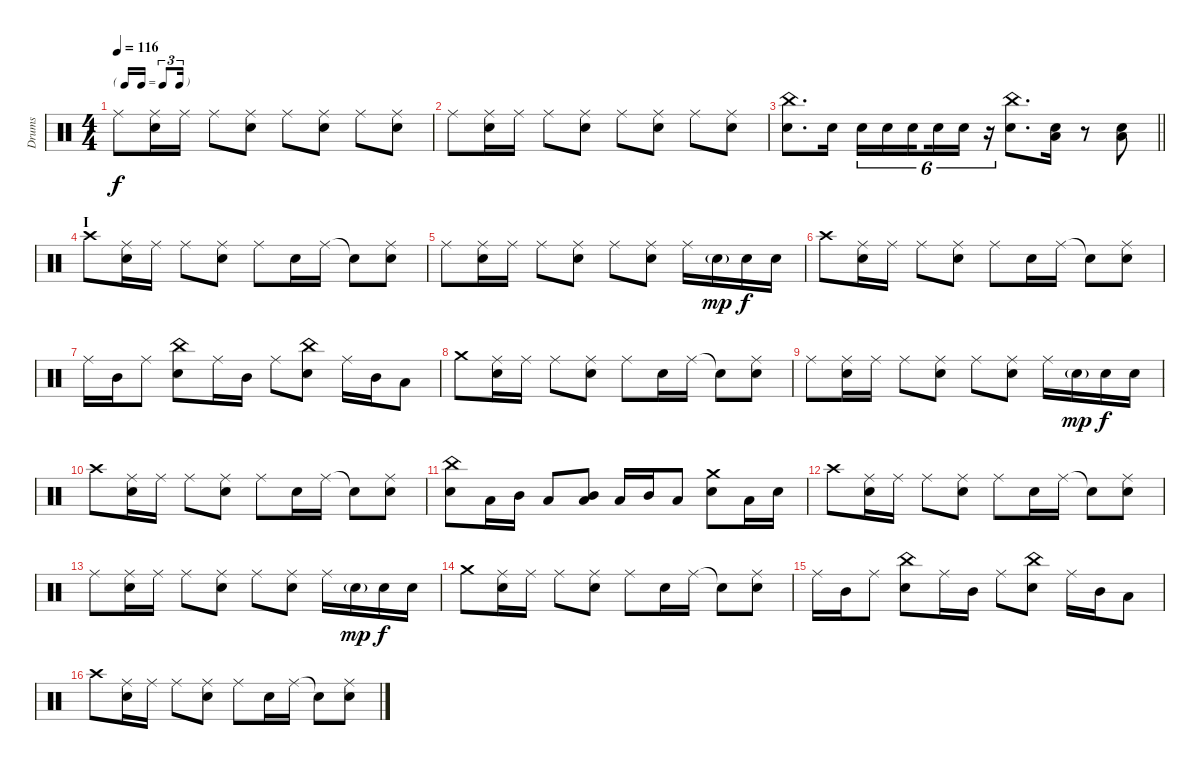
\track ("Drums" "Drums") {instrument percussion}
\staff {score}
\articulation defaults
\ts (4 4)
\tf triplet16th
\tempo 116
\clef neutral
\ks c "Ride (middle)".8{dy f}
("Ride (middle)" "Snare (hit) 2").16 "Ride (middle)".16 "Ride (middle)".8 ("Ride (middle)" "Snare (hit) 2").8 "Ride (middle)".8 ("Ride (middle)" "Snare (hit) 2").8 "Ride (middle)".8 ("Ride (middle)" "Snare (hit) 2").8 |
"Ride (middle)".8 ("Ride (middle)" "Snare (hit) 2").16 "Ride (middle)".16 "Ride (middle)".8 ("Ride (middle)" "Snare (hit) 2").8 "Ride (middle)".8 ("Ride (middle)" "Snare (hit) 2").8 "Ride (middle)".8 ("Ride (middle)" "Snare (hit) 2").8 |
\barLineRight lightlight
("China (hit)" "Snare (hit) 2").8{d} "Snare (hit) 2".16 "Snare (hit) 2".16{tu (6 4)} "Snare (hit) 2".16{tu (6 4)} "Snare (hit) 2".16{tu (6 4) beam splitsecondary} "Snare (hit) 2".16{tu (6 4)} "Snare (hit) 2".16{tu (6 4)} r.16{tu (6 4)} ("China (hit)" "Snare (hit) 2").8{d} ("Low Tom (hit)" "Snare (hit) 2").16 r.8 ("Low Tom (hit)" "Snare (hit) 2").8 |
\section ("" "I")
"Crash high (hit)".8 ("Ride (middle)" "Snare (hit) 2").16 "Ride (middle)".16 "Ride (middle)".8 ("Ride (middle)" "Snare (hit) 2").8 "Ride (middle)".8 "Snare (hit) 2".16 "Ride (middle)".16 "Snare (hit)"{t}.8 ("Ride (middle)" "Snare (hit) 2").8 |
"Ride (middle)".8 ("Ride (middle)" "Snare (hit) 2").16 "Ride (middle)".16 "Ride (middle)".8 ("Ride (middle)" "Snare (hit) 2").8 "Ride (middle)".8 ("Ride (middle)" "Snare (hit) 2").8 "Ride (middle)".16 "Snare (hit) 2"{g}.16{dy mp} "Snare (hit) 2".16{dy f} "Snare (hit) 2".16 |
"Crash high (hit)".8 ("Ride (middle)" "Snare (hit) 2").16 "Ride (middle)".16 "Ride (middle)".8 ("Ride (middle)" "Snare (hit) 2").8 "Ride (middle)".8 "Snare (hit) 2".16 "Ride (middle)".16 "Snare (hit)"{t}.8 ("Ride (middle)" "Snare (hit) 2").8 |
"Ride (middle)".16 "Mid Tom (hit)".16 "Ride (middle)".8 ("China (hit)" "Snare (hit) 2").8 "Ride (middle)".16 "Mid Tom (hit)".16 "Ride (middle)".8 ("China (hit)" "Snare (hit) 2").8 "Ride (middle)".16 "Mid Tom (hit)".16 "Low Tom (hit)".8 |
"Crash medium (hit)".8 ("Ride (middle)" "Snare (hit) 2").16 "Ride (middle)".16 "Ride (middle)".8 ("Ride (middle)" "Snare (hit) 2").8 "Ride (middle)".8 "Snare (hit) 2".16 "Ride (middle)".16 "Snare (hit)"{t}.8 ("Ride (middle)" "Snare (hit) 2").8 |
"Ride (middle)".8 ("Ride (middle)" "Snare (hit) 2").16 "Ride (middle)".16 "Ride (middle)".8 ("Ride (middle)" "Snare (hit) 2").8 "Ride (middle)".8 ("Ride (middle)" "Snare (hit) 2").8 "Ride (middle)".16 "Snare (hit) 2"{g}.16{dy mp} "Snare (hit) 2".16{dy f} "Snare (hit) 2".16 |
"Crash high (hit)".8 ("Ride (middle)" "Snare (hit) 2").16 "Ride (middle)".16 "Ride (middle)".8 ("Ride (middle)" "Snare (hit) 2").8 "Ride (middle)".8 "Snare (hit) 2".16 "Ride (middle)".16 "Snare (hit)"{t}.8 ("Ride (middle)" "Snare (hit) 2").8 |
("China (hit)" "Snare (hit) 2").8 "Low Tom (hit)".16 "Mid Tom (hit)".16 "Low Tom (hit)".8 ("Mid Tom (hit)" "Low Tom (hit)").8 "Low Tom (hit)".16 "Mid Tom (hit)".16 "Low Tom (hit)".8 ("Crash medium (hit)" "Snare (hit) 2").8 "Low Tom (hit)".16 "Snare (hit) 2".16 |
"Crash high (hit)".8 ("Ride (middle)" "Snare (hit) 2").16 "Ride (middle)".16 "Ride (middle)".8 ("Ride (middle)" "Snare (hit) 2").8 "Ride (middle)".8 "Snare (hit) 2".16 "Ride (middle)".16 "Snare (hit)"{t}.8 ("Ride (middle)" "Snare (hit) 2").8 |
"Ride (middle)".8 ("Ride (middle)" "Snare (hit) 2").16 "Ride (middle)".16 "Ride (middle)".8 ("Ride (middle)" "Snare (hit) 2").8 "Ride (middle)".8 ("Ride (middle)" "Snare (hit) 2").8 "Ride (middle)".16 "Snare (hit) 2"{g}.16{dy mp} "Snare (hit) 2".16{dy f} "Snare (hit) 2".16 |
"Crash medium (hit)".8 ("Ride (middle)" "Snare (hit) 2").16 "Ride (middle)".16 "Ride (middle)".8 ("Ride (middle)" "Snare (hit) 2").8 "Ride (middle)".8 "Snare (hit) 2".16 "Ride (middle)".16 "Snare (hit)"{t}.8 ("Ride (middle)" "Snare (hit) 2").8 |
"Ride (middle)".16 "Mid Tom (hit)".16 "Ride (middle)".8 ("China (hit)" "Snare (hit) 2").8 "Ride (middle)".16 "Mid Tom (hit)".16 "Ride (middle)".8 ("China (hit)" "Snare (hit) 2").8 "Ride (middle)".16 "Mid Tom (hit)".16 "Low Tom (hit)".8 |
"Crash high (hit)".8 ("Ride (middle)" "Snare (hit) 2").16 "Ride (middle)".16 "Ride (middle)".8 ("Ride (middle)" "Snare (hit) 2").8 "Ride (middle)".8 "Snare (hit) 2".16 "Ride (middle)".16 "Snare (hit)"{t}.8 ("Ride (middle)" "Snare (hit) 2").8
